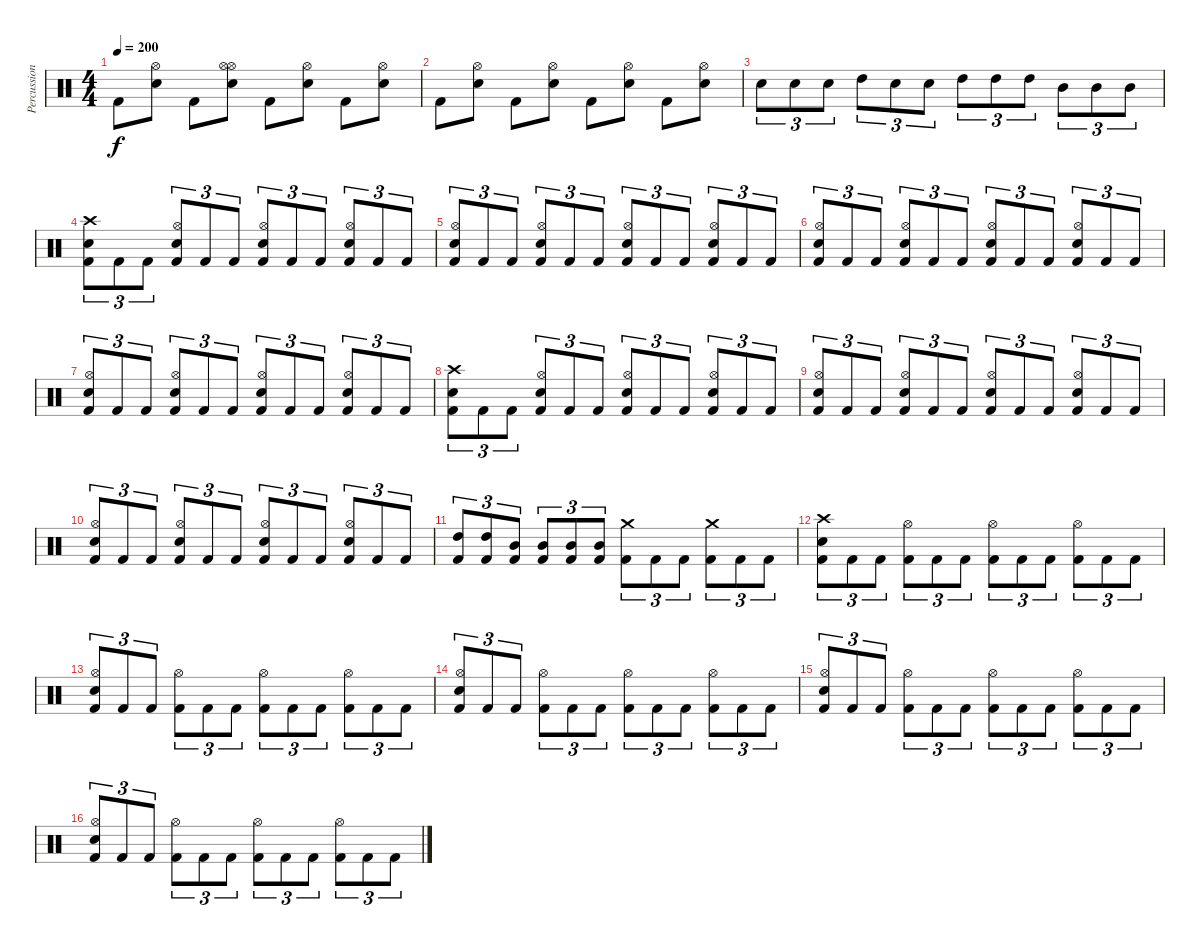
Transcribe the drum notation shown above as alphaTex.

\track ("Percussion" "Percussion") {instrument percussion}
\staff {score}
\articulation defaults
\ts (4 4)
\tempo 200
\clef neutral
\ks c "Kick (hit) 2".8{dy f}
("Hi-Hat (open)" "Snare (hit) 2").8 "Kick (hit) 2".8 ("Hi-Hat (open)" "Hi-Hat (open)" "Snare (hit) 2").8 "Kick (hit) 2".8 ("Hi-Hat (open)" "Snare (hit) 2").8 "Kick (hit) 2".8 ("Hi-Hat (open)" "Snare (hit) 2").8 |
"Kick (hit) 2".8 ("Hi-Hat (open)" "Snare (hit) 2").8 "Kick (hit) 2".8 ("Hi-Hat (open)" "Snare (hit) 2").8 "Kick (hit) 2".8 ("Hi-Hat (open)" "Snare (hit) 2").8 "Kick (hit) 2".8 ("Hi-Hat (open)" "Snare (hit) 2").8 |
"Snare (hit) 2".8{tu (3 2)} "Snare (hit) 2".8{tu (3 2)} "Snare (hit) 2".8{tu (3 2)} "High Tom (hit)".8{tu (3 2)} "Snare (hit) 2".8{tu (3 2)} "Snare (hit) 2".8{tu (3 2)} "High Tom (hit)".8{tu (3 2)} "High Tom (hit)".8{tu (3 2)} "High Tom (hit)".8{tu (3 2)} "Mid Tom (hit)".8{tu (3 2)} "Mid Tom (hit)".8{tu (3 2)} "Mid Tom (hit)".8{tu (3 2)} |
("Crash high (hit)" "Snare (hit) 2" "Kick (hit) 2").8{tu (3 2)} "Kick (hit) 2".8{tu (3 2)} "Kick (hit) 2".8{tu (3 2)} ("Hi-Hat (open)" "Snare (hit) 2" "Kick (hit) 2").8{tu (3 2)} "Kick (hit) 2".8{tu (3 2)} "Kick (hit) 2".8{tu (3 2)} ("Hi-Hat (open)" "Snare (hit) 2" "Kick (hit) 2").8{tu (3 2)} "Kick (hit) 2".8{tu (3 2)} "Kick (hit) 2".8{tu (3 2)} ("Hi-Hat (open)" "Snare (hit) 2" "Kick (hit) 2").8{tu (3 2)} "Kick (hit) 2".8{tu (3 2)} "Kick (hit) 2".8{tu (3 2)} |
("Hi-Hat (open)" "Snare (hit) 2" "Kick (hit) 2").8{tu (3 2)} "Kick (hit) 2".8{tu (3 2)} "Kick (hit) 2".8{tu (3 2)} ("Hi-Hat (open)" "Snare (hit) 2" "Kick (hit) 2").8{tu (3 2)} "Kick (hit) 2".8{tu (3 2)} "Kick (hit) 2".8{tu (3 2)} ("Hi-Hat (open)" "Snare (hit) 2" "Kick (hit) 2").8{tu (3 2)} "Kick (hit) 2".8{tu (3 2)} "Kick (hit) 2".8{tu (3 2)} ("Hi-Hat (open)" "Snare (hit) 2" "Kick (hit) 2").8{tu (3 2)} "Kick (hit) 2".8{tu (3 2)} "Kick (hit) 2".8{tu (3 2)} |
("Hi-Hat (open)" "Snare (hit) 2" "Kick (hit) 2").8{tu (3 2)} "Kick (hit) 2".8{tu (3 2)} "Kick (hit) 2".8{tu (3 2)} ("Hi-Hat (open)" "Snare (hit) 2" "Kick (hit) 2").8{tu (3 2)} "Kick (hit) 2".8{tu (3 2)} "Kick (hit) 2".8{tu (3 2)} ("Hi-Hat (open)" "Snare (hit) 2" "Kick (hit) 2").8{tu (3 2)} "Kick (hit) 2".8{tu (3 2)} "Kick (hit) 2".8{tu (3 2)} ("Hi-Hat (open)" "Snare (hit) 2" "Kick (hit) 2").8{tu (3 2)} "Kick (hit) 2".8{tu (3 2)} "Kick (hit) 2".8{tu (3 2)} |
("Hi-Hat (open)" "Snare (hit) 2" "Kick (hit) 2").8{tu (3 2)} "Kick (hit) 2".8{tu (3 2)} "Kick (hit) 2".8{tu (3 2)} ("Hi-Hat (open)" "Snare (hit) 2" "Kick (hit) 2").8{tu (3 2)} "Kick (hit) 2".8{tu (3 2)} "Kick (hit) 2".8{tu (3 2)} ("Hi-Hat (open)" "Snare (hit) 2" "Kick (hit) 2").8{tu (3 2)} "Kick (hit) 2".8{tu (3 2)} "Kick (hit) 2".8{tu (3 2)} ("Hi-Hat (open)" "Snare (hit) 2" "Kick (hit) 2").8{tu (3 2)} "Kick (hit) 2".8{tu (3 2)} "Kick (hit) 2".8{tu (3 2)} |
("Crash high (hit)" "Snare (hit) 2" "Kick (hit) 2").8{tu (3 2)} "Kick (hit) 2".8{tu (3 2)} "Kick (hit) 2".8{tu (3 2)} ("Hi-Hat (open)" "Snare (hit) 2" "Kick (hit) 2").8{tu (3 2)} "Kick (hit) 2".8{tu (3 2)} "Kick (hit) 2".8{tu (3 2)} ("Hi-Hat (open)" "Snare (hit) 2" "Kick (hit) 2").8{tu (3 2)} "Kick (hit) 2".8{tu (3 2)} "Kick (hit) 2".8{tu (3 2)} ("Hi-Hat (open)" "Snare (hit) 2" "Kick (hit) 2").8{tu (3 2)} "Kick (hit) 2".8{tu (3 2)} "Kick (hit) 2".8{tu (3 2)} |
("Hi-Hat (open)" "Snare (hit) 2" "Kick (hit) 2").8{tu (3 2)} "Kick (hit) 2".8{tu (3 2)} "Kick (hit) 2".8{tu (3 2)} ("Hi-Hat (open)" "Snare (hit) 2" "Kick (hit) 2").8{tu (3 2)} "Kick (hit) 2".8{tu (3 2)} "Kick (hit) 2".8{tu (3 2)} ("Hi-Hat (open)" "Snare (hit) 2" "Kick (hit) 2").8{tu (3 2)} "Kick (hit) 2".8{tu (3 2)} "Kick (hit) 2".8{tu (3 2)} ("Hi-Hat (open)" "Snare (hit) 2" "Kick (hit) 2").8{tu (3 2)} "Kick (hit) 2".8{tu (3 2)} "Kick (hit) 2".8{tu (3 2)} |
("Hi-Hat (open)" "Snare (hit) 2" "Kick (hit) 2").8{tu (3 2)} "Kick (hit) 2".8{tu (3 2)} "Kick (hit) 2".8{tu (3 2)} ("Hi-Hat (open)" "Snare (hit) 2" "Kick (hit) 2").8{tu (3 2)} "Kick (hit) 2".8{tu (3 2)} "Kick (hit) 2".8{tu (3 2)} ("Hi-Hat (open)" "Snare (hit) 2" "Kick (hit) 2").8{tu (3 2)} "Kick (hit) 2".8{tu (3 2)} "Kick (hit) 2".8{tu (3 2)} ("Hi-Hat (open)" "Snare (hit) 2" "Kick (hit) 2").8{tu (3 2)} "Kick (hit) 2".8{tu (3 2)} "Kick (hit) 2".8{tu (3 2)} |
("High Tom (hit)" "Kick (hit) 2").8{tu (3 2)} ("High Tom (hit)" "Kick (hit) 2").8{tu (3 2)} ("Mid Tom (hit)" "Kick (hit) 2").8{tu (3 2)} ("Mid Tom (hit)" "Kick (hit) 2").8{tu (3 2)} ("Mid Tom (hit)" "Kick (hit) 2").8{tu (3 2)} ("Mid Tom (hit)" "Kick (hit) 2").8{tu (3 2)} ("Crash medium (hit)" "Kick (hit) 2").8{tu (3 2)} "Kick (hit) 2".8{tu (3 2)} "Kick (hit) 2".8{tu (3 2)} ("Crash medium (hit)" "Kick (hit) 2").8{tu (3 2)} "Kick (hit) 2".8{tu (3 2)} "Kick (hit) 2".8{tu (3 2)} |
("Crash high (hit)" "Snare (hit) 2" "Kick (hit) 2").8{tu (3 2)} "Kick (hit) 2".8{tu (3 2)} "Kick (hit) 2".8{tu (3 2)} ("Hi-Hat (open)" "Kick (hit) 2").8{tu (3 2)} "Kick (hit) 2".8{tu (3 2)} "Kick (hit) 2".8{tu (3 2)} ("Hi-Hat (open)" "Kick (hit) 2").8{tu (3 2)} "Kick (hit) 2".8{tu (3 2)} "Kick (hit) 2".8{tu (3 2)} ("Hi-Hat (open)" "Kick (hit) 2").8{tu (3 2)} "Kick (hit) 2".8{tu (3 2)} "Kick (hit) 2".8{tu (3 2)} |
("Hi-Hat (open)" "Snare (hit) 2" "Kick (hit) 2").8{tu (3 2)} "Kick (hit) 2".8{tu (3 2)} "Kick (hit) 2".8{tu (3 2)} ("Hi-Hat (open)" "Kick (hit) 2").8{tu (3 2)} "Kick (hit) 2".8{tu (3 2)} "Kick (hit) 2".8{tu (3 2)} ("Hi-Hat (open)" "Kick (hit) 2").8{tu (3 2)} "Kick (hit) 2".8{tu (3 2)} "Kick (hit) 2".8{tu (3 2)} ("Hi-Hat (open)" "Kick (hit) 2").8{tu (3 2)} "Kick (hit) 2".8{tu (3 2)} "Kick (hit) 2".8{tu (3 2)} |
("Hi-Hat (open)" "Snare (hit) 2" "Kick (hit) 2").8{tu (3 2)} "Kick (hit) 2".8{tu (3 2)} "Kick (hit) 2".8{tu (3 2)} ("Hi-Hat (open)" "Kick (hit) 2").8{tu (3 2)} "Kick (hit) 2".8{tu (3 2)} "Kick (hit) 2".8{tu (3 2)} ("Hi-Hat (open)" "Kick (hit) 2").8{tu (3 2)} "Kick (hit) 2".8{tu (3 2)} "Kick (hit) 2".8{tu (3 2)} ("Hi-Hat (open)" "Kick (hit) 2").8{tu (3 2)} "Kick (hit) 2".8{tu (3 2)} "Kick (hit) 2".8{tu (3 2)} |
("Hi-Hat (open)" "Snare (hit) 2" "Kick (hit) 2").8{tu (3 2)} "Kick (hit) 2".8{tu (3 2)} "Kick (hit) 2".8{tu (3 2)} ("Hi-Hat (open)" "Kick (hit) 2").8{tu (3 2)} "Kick (hit) 2".8{tu (3 2)} "Kick (hit) 2".8{tu (3 2)} ("Hi-Hat (open)" "Kick (hit) 2").8{tu (3 2)} "Kick (hit) 2".8{tu (3 2)} "Kick (hit) 2".8{tu (3 2)} ("Hi-Hat (open)" "Kick (hit) 2").8{tu (3 2)} "Kick (hit) 2".8{tu (3 2)} "Kick (hit) 2".8{tu (3 2)} |
("Hi-Hat (open)" "Snare (hit) 2" "Kick (hit) 2").8{tu (3 2)} "Kick (hit) 2".8{tu (3 2)} "Kick (hit) 2".8{tu (3 2)} ("Hi-Hat (open)" "Kick (hit) 2").8{tu (3 2)} "Kick (hit) 2".8{tu (3 2)} "Kick (hit) 2".8{tu (3 2)} ("Hi-Hat (open)" "Kick (hit) 2").8{tu (3 2)} "Kick (hit) 2".8{tu (3 2)} "Kick (hit) 2".8{tu (3 2)} ("Hi-Hat (open)" "Kick (hit) 2").8{tu (3 2)} "Kick (hit) 2".8{tu (3 2)} "Kick (hit) 2".8{tu (3 2)}
